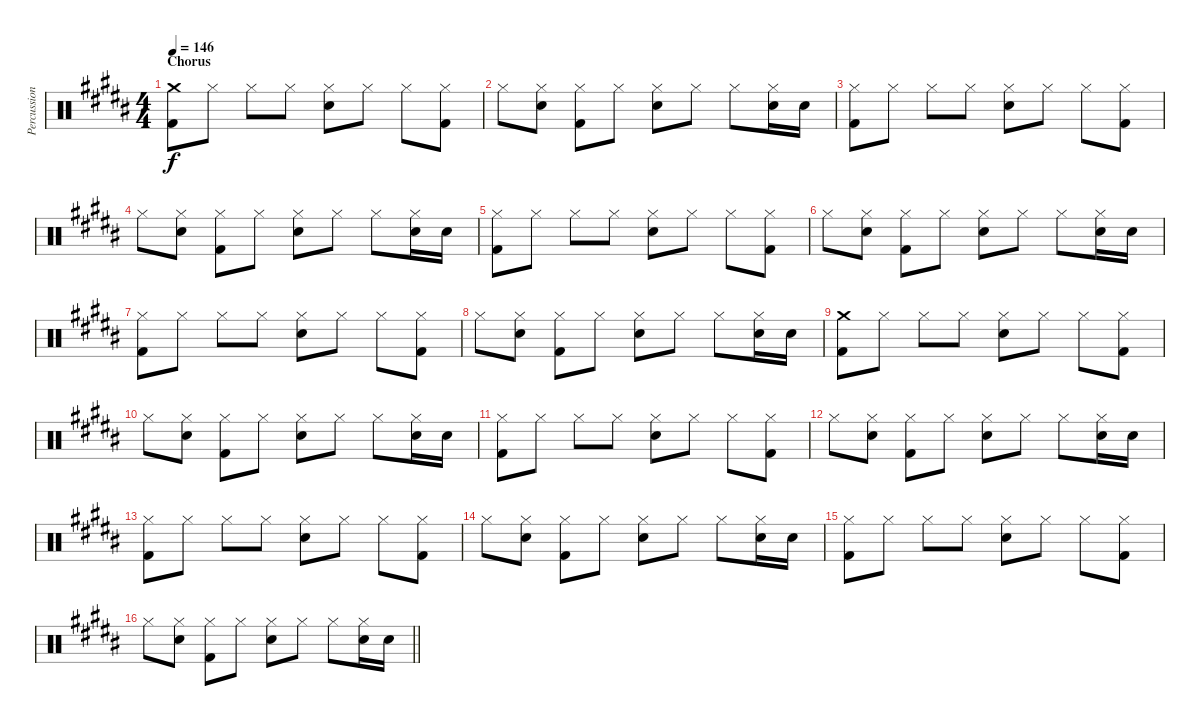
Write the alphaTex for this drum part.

\track ("Percussion" "Percussion") {instrument percussion}
\staff {score}
\articulation defaults
\ts (4 4)
\section ("" "Chorus")
\tempo 146
\clef neutral
\ks b
("Crash medium (hit)" "Kick (hit) 2").8{dy f} "Hi-Hat (closed)".8 "Hi-Hat (closed)".8 "Hi-Hat (closed)".8 ("Hi-Hat (closed)" "Snare (hit) 2").8 "Hi-Hat (closed)".8 "Hi-Hat (closed)".8 ("Hi-Hat (closed)" "Kick (hit) 2").8 |
"Hi-Hat (closed)".8 ("Hi-Hat (closed)" "Snare (hit) 2").8 ("Hi-Hat (closed)" "Kick (hit) 2").8 "Hi-Hat (closed)".8 ("Hi-Hat (closed)" "Snare (hit) 2").8 "Hi-Hat (closed)".8 "Hi-Hat (closed)".8 ("Hi-Hat (closed)" "Snare (hit) 2").16 "Snare (hit) 2".16 |
("Hi-Hat (closed)" "Kick (hit) 2").8 "Hi-Hat (closed)".8 "Hi-Hat (closed)".8 "Hi-Hat (closed)".8 ("Hi-Hat (closed)" "Snare (hit) 2").8 "Hi-Hat (closed)".8 "Hi-Hat (closed)".8 ("Hi-Hat (closed)" "Kick (hit) 2").8 |
"Hi-Hat (closed)".8 ("Hi-Hat (closed)" "Snare (hit) 2").8 ("Hi-Hat (closed)" "Kick (hit) 2").8 "Hi-Hat (closed)".8 ("Hi-Hat (closed)" "Snare (hit) 2").8 "Hi-Hat (closed)".8 "Hi-Hat (closed)".8 ("Hi-Hat (closed)" "Snare (hit) 2").16 "Snare (hit) 2".16 |
("Hi-Hat (closed)" "Kick (hit) 2").8 "Hi-Hat (closed)".8 "Hi-Hat (closed)".8 "Hi-Hat (closed)".8 ("Hi-Hat (closed)" "Snare (hit) 2").8 "Hi-Hat (closed)".8 "Hi-Hat (closed)".8 ("Hi-Hat (closed)" "Kick (hit) 2").8 |
"Hi-Hat (closed)".8 ("Hi-Hat (closed)" "Snare (hit) 2").8 ("Hi-Hat (closed)" "Kick (hit) 2").8 "Hi-Hat (closed)".8 ("Hi-Hat (closed)" "Snare (hit) 2").8 "Hi-Hat (closed)".8 "Hi-Hat (closed)".8 ("Hi-Hat (closed)" "Snare (hit) 2").16 "Snare (hit) 2".16 |
("Hi-Hat (closed)" "Kick (hit) 2").8 "Hi-Hat (closed)".8 "Hi-Hat (closed)".8 "Hi-Hat (closed)".8 ("Hi-Hat (closed)" "Snare (hit) 2").8 "Hi-Hat (closed)".8 "Hi-Hat (closed)".8 ("Hi-Hat (closed)" "Kick (hit) 2").8 |
"Hi-Hat (closed)".8 ("Hi-Hat (closed)" "Snare (hit) 2").8 ("Hi-Hat (closed)" "Kick (hit) 2").8 "Hi-Hat (closed)".8 ("Hi-Hat (closed)" "Snare (hit) 2").8 "Hi-Hat (closed)".8 "Hi-Hat (closed)".8 ("Hi-Hat (closed)" "Snare (hit) 2").16 "Snare (hit) 2".16 |
("Crash medium (hit)" "Kick (hit) 2").8 "Hi-Hat (closed)".8 "Hi-Hat (closed)".8 "Hi-Hat (closed)".8 ("Hi-Hat (closed)" "Snare (hit) 2").8 "Hi-Hat (closed)".8 "Hi-Hat (closed)".8 ("Hi-Hat (closed)" "Kick (hit) 2").8 |
"Hi-Hat (closed)".8 ("Hi-Hat (closed)" "Snare (hit) 2").8 ("Hi-Hat (closed)" "Kick (hit) 2").8 "Hi-Hat (closed)".8 ("Hi-Hat (closed)" "Snare (hit) 2").8 "Hi-Hat (closed)".8 "Hi-Hat (closed)".8 ("Hi-Hat (closed)" "Snare (hit) 2").16 "Snare (hit) 2".16 |
("Hi-Hat (closed)" "Kick (hit) 2").8 "Hi-Hat (closed)".8 "Hi-Hat (closed)".8 "Hi-Hat (closed)".8 ("Hi-Hat (closed)" "Snare (hit) 2").8 "Hi-Hat (closed)".8 "Hi-Hat (closed)".8 ("Hi-Hat (closed)" "Kick (hit) 2").8 |
"Hi-Hat (closed)".8 ("Hi-Hat (closed)" "Snare (hit) 2").8 ("Hi-Hat (closed)" "Kick (hit) 2").8 "Hi-Hat (closed)".8 ("Hi-Hat (closed)" "Snare (hit) 2").8 "Hi-Hat (closed)".8 "Hi-Hat (closed)".8 ("Hi-Hat (closed)" "Snare (hit) 2").16 "Snare (hit) 2".16 |
("Hi-Hat (closed)" "Kick (hit) 2").8 "Hi-Hat (closed)".8 "Hi-Hat (closed)".8 "Hi-Hat (closed)".8 ("Hi-Hat (closed)" "Snare (hit) 2").8 "Hi-Hat (closed)".8 "Hi-Hat (closed)".8 ("Hi-Hat (closed)" "Kick (hit) 2").8 |
"Hi-Hat (closed)".8 ("Hi-Hat (closed)" "Snare (hit) 2").8 ("Hi-Hat (closed)" "Kick (hit) 2").8 "Hi-Hat (closed)".8 ("Hi-Hat (closed)" "Snare (hit) 2").8 "Hi-Hat (closed)".8 "Hi-Hat (closed)".8 ("Hi-Hat (closed)" "Snare (hit) 2").16 "Snare (hit) 2".16 |
("Hi-Hat (closed)" "Kick (hit) 2").8 "Hi-Hat (closed)".8 "Hi-Hat (closed)".8 "Hi-Hat (closed)".8 ("Hi-Hat (closed)" "Snare (hit) 2").8 "Hi-Hat (closed)".8 "Hi-Hat (closed)".8 ("Hi-Hat (closed)" "Kick (hit) 2").8 |
\barLineRight lightlight "Hi-Hat (closed)".8
("Hi-Hat (closed)" "Snare (hit) 2").8 ("Hi-Hat (closed)" "Kick (hit) 2").8 "Hi-Hat (closed)".8 ("Hi-Hat (closed)" "Snare (hit) 2").8 "Hi-Hat (closed)".8 "Hi-Hat (closed)".8 ("Hi-Hat (closed)" "Snare (hit) 2").16 "Snare (hit) 2".16
